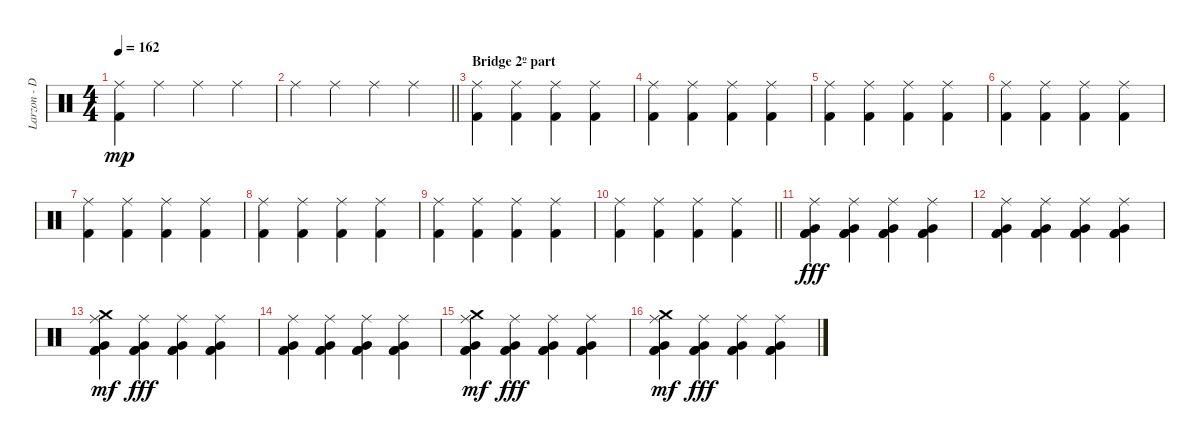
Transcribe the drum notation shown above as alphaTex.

\track ("Larzon - Drums" "Larzon - D") {instrument percussion}
\staff {score}
\articulation defaults
\ts (4 4)
\tempo 162
\clef neutral
\ks c
("Ride (middle)" "Kick (hit) 2").4{dy mp} "Ride (middle)".4 "Ride (middle)".4 "Ride (middle)".4 |
\barLineRight lightlight "Ride (middle)".4 "Ride (middle)".4 "Ride (middle)".4 "Ride (middle)".4
|
\section ("" "Bridge 2º part")
("Ride (middle)" "Kick (hit) 2").4 ("Ride (middle)" "Kick (hit) 2").4 ("Ride (middle)" "Kick (hit) 2").4 ("Ride (middle)" "Kick (hit) 2").4 |
("Ride (middle)" "Kick (hit) 2").4 ("Ride (middle)" "Kick (hit) 2").4 ("Ride (middle)" "Kick (hit) 2").4 ("Ride (middle)" "Kick (hit) 2").4 |
("Ride (middle)" "Kick (hit) 2").4 ("Ride (middle)" "Kick (hit) 2").4 ("Ride (middle)" "Kick (hit) 2").4 ("Ride (middle)" "Kick (hit) 2").4 |
("Ride (middle)" "Kick (hit) 2").4 ("Ride (middle)" "Kick (hit) 2").4 ("Ride (middle)" "Kick (hit) 2").4 ("Ride (middle)" "Kick (hit) 2").4 |
("Ride (middle)" "Kick (hit) 2").4 ("Ride (middle)" "Kick (hit) 2").4 ("Ride (middle)" "Kick (hit) 2").4 ("Ride (middle)" "Kick (hit) 2").4 |
("Ride (middle)" "Kick (hit) 2").4 ("Ride (middle)" "Kick (hit) 2").4 ("Ride (middle)" "Kick (hit) 2").4 ("Ride (middle)" "Kick (hit) 2").4 |
("Ride (middle)" "Kick (hit) 2").4 ("Ride (middle)" "Kick (hit) 2").4 ("Ride (middle)" "Kick (hit) 2").4 ("Ride (middle)" "Kick (hit) 2").4 |
\barLineRight lightlight
("Ride (middle)" "Kick (hit) 2").4 ("Ride (middle)" "Kick (hit) 2").4 ("Ride (middle)" "Kick (hit) 2").4 ("Ride (middle)" "Kick (hit) 2").4 |
("Ride (middle)" "Kick (hit) 2" "Kick (hit) 2" "Very Low Tom (hit)").4{dy fff} ("Ride (middle)" "Kick (hit) 2" "Kick (hit) 2" "Very Low Tom (hit)").4 ("Ride (middle)" "Kick (hit) 2" "Kick (hit) 2" "Very Low Tom (hit)").4 ("Ride (middle)" "Kick (hit) 2" "Kick (hit) 2" "Very Low Tom (hit)").4 |
("Ride (middle)" "Kick (hit) 2" "Kick (hit) 2" "Very Low Tom (hit)").4 ("Ride (middle)" "Kick (hit) 2" "Kick (hit) 2" "Very Low Tom (hit)").4 ("Ride (middle)" "Kick (hit) 2" "Kick (hit) 2" "Very Low Tom (hit)").4 ("Ride (middle)" "Kick (hit) 2" "Kick (hit) 2" "Very Low Tom (hit)").4 |
("Ride (middle)" "Kick (hit) 2" "Kick (hit) 2" "Very Low Tom (hit)" "Crash medium (hit)").4{dy mf} ("Ride (middle)" "Kick (hit) 2" "Kick (hit) 2" "Very Low Tom (hit)").4{dy fff} ("Ride (middle)" "Kick (hit) 2" "Kick (hit) 2" "Very Low Tom (hit)").4 ("Ride (middle)" "Kick (hit) 2" "Kick (hit) 2" "Very Low Tom (hit)").4 |
("Ride (middle)" "Kick (hit) 2" "Kick (hit) 2" "Very Low Tom (hit)").4 ("Ride (middle)" "Kick (hit) 2" "Kick (hit) 2" "Very Low Tom (hit)").4 ("Ride (middle)" "Kick (hit) 2" "Kick (hit) 2" "Very Low Tom (hit)").4 ("Ride (middle)" "Kick (hit) 2" "Kick (hit) 2" "Very Low Tom (hit)").4 |
("Ride (middle)" "Kick (hit) 2" "Kick (hit) 2" "Very Low Tom (hit)" "Crash medium (hit)").4{dy mf} ("Ride (middle)" "Kick (hit) 2" "Kick (hit) 2" "Very Low Tom (hit)").4{dy fff} ("Ride (middle)" "Kick (hit) 2" "Kick (hit) 2" "Very Low Tom (hit)").4 ("Ride (middle)" "Kick (hit) 2" "Kick (hit) 2" "Very Low Tom (hit)").4 |
("Ride (middle)" "Kick (hit) 2" "Kick (hit) 2" "Very Low Tom (hit)" "Crash medium (hit)").4{dy mf} ("Ride (middle)" "Kick (hit) 2" "Kick (hit) 2" "Very Low Tom (hit)").4{dy fff} ("Ride (middle)" "Kick (hit) 2" "Kick (hit) 2" "Very Low Tom (hit)").4 ("Ride (middle)" "Kick (hit) 2" "Kick (hit) 2" "Very Low Tom (hit)").4
